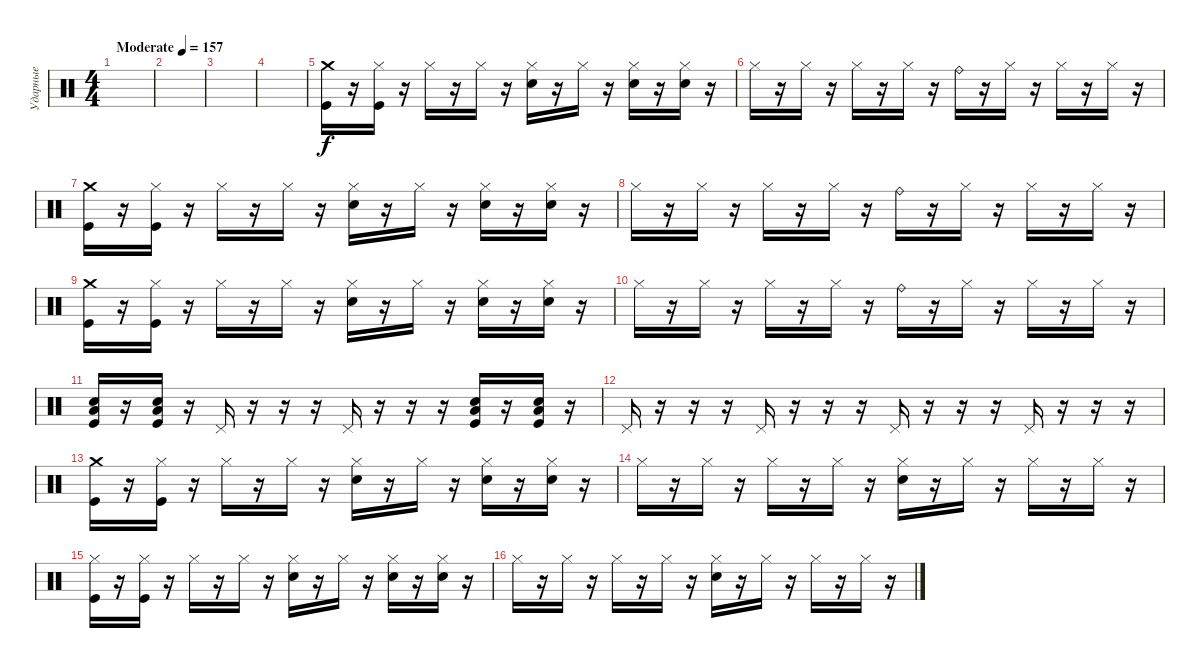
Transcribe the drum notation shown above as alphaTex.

\track ("Ударные" "Ударные") {instrument percussion}
\staff {score}
\articulation defaults
\ts (4 4)
\tempo (157 "Moderate")
\clef neutral
\ks c
|
|
|
|
("Crash medium (hit)" "Kick (hit)").16 r.16 ("Hi-Hat (closed)" "Kick (hit)").16 r.16 "Hi-Hat (closed)".16 r.16 "Hi-Hat (closed)".16 r.16 ("Hi-Hat (closed)" "Electric Snare (hit)").16 r.16 "Hi-Hat (closed)".16 r.16 ("Hi-Hat (closed)" "Electric Snare (hit)").16 r.16 ("Hi-Hat (closed)" "Electric Snare (hit)").16 r.16 |
"Hi-Hat (closed)".16 r.16 "Hi-Hat (closed)".16 r.16 "Hi-Hat (closed)".16 r.16 "Hi-Hat (closed)".16 r.16 "Ride (bell)".16 r.16 "Hi-Hat (closed)".16 r.16 "Hi-Hat (closed)".16 r.16 "Hi-Hat (closed)".16 r.16 |
("Crash medium (hit)" "Kick (hit)").16 r.16 ("Hi-Hat (closed)" "Kick (hit)").16 r.16 "Hi-Hat (closed)".16 r.16 "Hi-Hat (closed)".16 r.16 ("Hi-Hat (closed)" "Electric Snare (hit)").16 r.16 "Hi-Hat (closed)".16 r.16 ("Hi-Hat (closed)" "Electric Snare (hit)").16 r.16 ("Hi-Hat (closed)" "Electric Snare (hit)").16 r.16 |
"Hi-Hat (closed)".16 r.16 "Hi-Hat (closed)".16 r.16 "Hi-Hat (closed)".16 r.16 "Hi-Hat (closed)".16 r.16 "Ride (bell)".16 r.16 "Hi-Hat (closed)".16 r.16 "Hi-Hat (closed)".16 r.16 "Hi-Hat (closed)".16 r.16 |
("Crash medium (hit)" "Kick (hit)").16 r.16 ("Hi-Hat (closed)" "Kick (hit)").16 r.16 "Hi-Hat (closed)".16 r.16 "Hi-Hat (closed)".16 r.16 ("Hi-Hat (closed)" "Electric Snare (hit)").16 r.16 "Hi-Hat (closed)".16 r.16 ("Hi-Hat (closed)" "Electric Snare (hit)").16 r.16 ("Hi-Hat (closed)" "Electric Snare (hit)").16 r.16 |
"Hi-Hat (closed)".16 r.16 "Hi-Hat (closed)".16 r.16 "Hi-Hat (closed)".16 r.16 "Hi-Hat (closed)".16 r.16 "Ride (bell)".16 r.16 "Hi-Hat (closed)".16 r.16 "Hi-Hat (closed)".16 r.16 "Hi-Hat (closed)".16 r.16 |
("Low Floor Tom (hit)" "Electric Snare (hit)" "Kick (hit)").16 r.16 ("Low Floor Tom (hit)" "Electric Snare (hit)" "Kick (hit)").16 r.16 "Pedal Hi-Hat (hit)".16 r.16 r.16 r.16 "Pedal Hi-Hat (hit)".16 r.16 r.16 r.16 ("Low Floor Tom (hit)" "Electric Snare (hit)" "Kick (hit)").16 r.16 ("Low Floor Tom (hit)" "Electric Snare (hit)" "Kick (hit)").16 r.16 |
"Pedal Hi-Hat (hit)".16 r.16 r.16 r.16 "Pedal Hi-Hat (hit)".16 r.16 r.16 r.16 "Pedal Hi-Hat (hit)".16 r.16 r.16 r.16 "Pedal Hi-Hat (hit)".16 r.16 r.16 r.16 |
("Crash medium (hit)" "Kick (hit)").16 r.16 ("Hi-Hat (closed)" "Kick (hit)").16 r.16 "Hi-Hat (closed)".16 r.16 "Hi-Hat (closed)".16 r.16 ("Hi-Hat (closed)" "Electric Snare (hit)").16 r.16 "Hi-Hat (closed)".16 r.16 ("Hi-Hat (closed)" "Electric Snare (hit)").16 r.16 ("Hi-Hat (closed)" "Electric Snare (hit)").16 r.16 |
"Hi-Hat (closed)".16 r.16 "Hi-Hat (closed)".16 r.16 "Hi-Hat (closed)".16 r.16 "Hi-Hat (closed)".16 r.16 ("Hi-Hat (closed)" "Electric Snare (hit)").16 r.16 "Hi-Hat (closed)".16 r.16 "Hi-Hat (closed)".16 r.16 "Hi-Hat (closed)".16 r.16 |
("Hi-Hat (closed)" "Kick (hit)").16 r.16 ("Hi-Hat (closed)" "Kick (hit)").16 r.16 "Hi-Hat (closed)".16 r.16 "Hi-Hat (closed)".16 r.16 ("Hi-Hat (closed)" "Electric Snare (hit)").16 r.16 "Hi-Hat (closed)".16 r.16 ("Hi-Hat (closed)" "Electric Snare (hit)").16 r.16 ("Hi-Hat (closed)" "Electric Snare (hit)").16 r.16 |
"Hi-Hat (closed)".16 r.16 "Hi-Hat (closed)".16 r.16 "Hi-Hat (closed)".16 r.16 "Hi-Hat (closed)".16 r.16 ("Hi-Hat (closed)" "Electric Snare (hit)").16 r.16 "Hi-Hat (closed)".16 r.16 "Hi-Hat (closed)".16 r.16 "Hi-Hat (closed)".16 r.16
